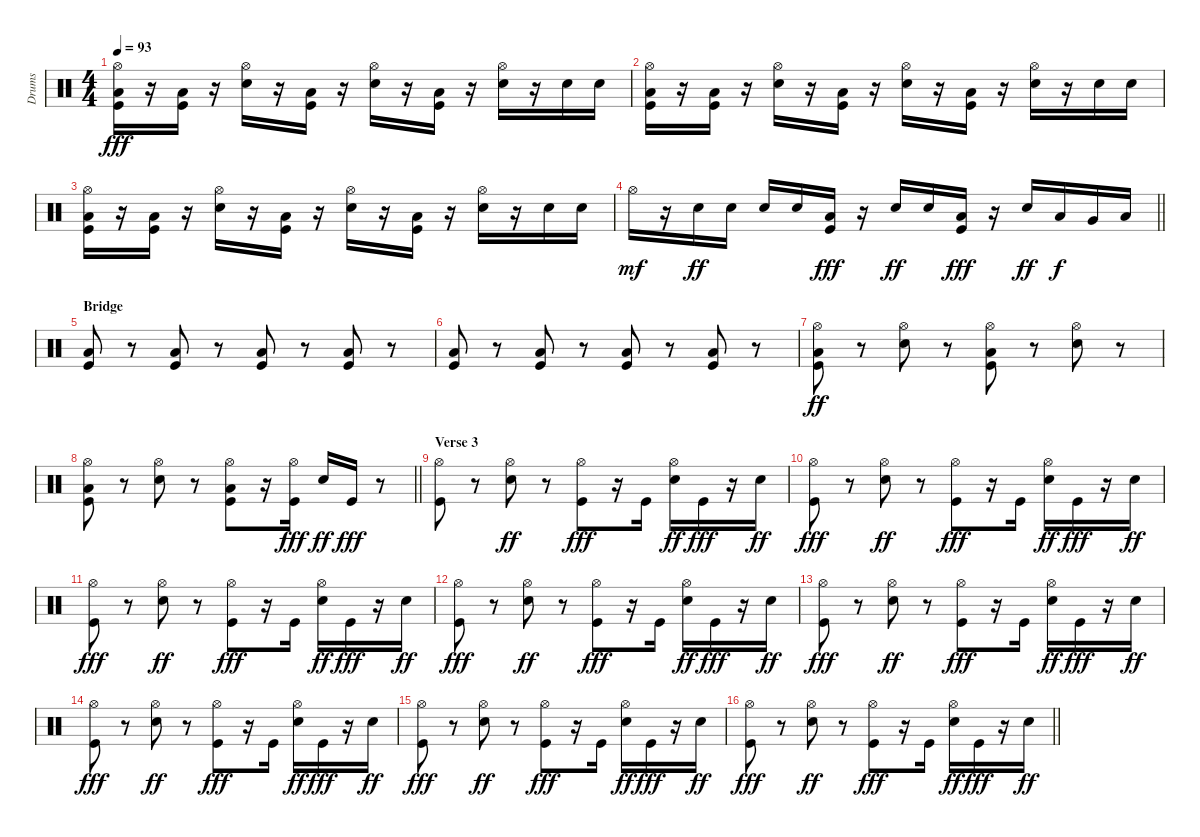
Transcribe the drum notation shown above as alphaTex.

\track ("Drums" "Drums") {instrument percussion}
\staff {score}
\articulation defaults
\ts (4 4)
\tempo 93
\clef neutral
\ks c
("Hi-Hat (open)" "Low Floor Tom (hit)" "Kick (hit)").16{dy fff} r.16 ("Low Floor Tom (hit)" "Kick (hit)").16 r.16 ("Hi-Hat (open)" "Electric Snare (hit)").16 r.16 ("Low Floor Tom (hit)" "Kick (hit)").16 r.16 ("Hi-Hat (open)" "Electric Snare (hit)").16 r.16 ("Low Floor Tom (hit)" "Kick (hit)").16 r.16 ("Hi-Hat (open)" "Electric Snare (hit)").16 r.16 "Electric Snare (hit)".16 "Electric Snare (hit)".16 |
("Hi-Hat (open)" "Low Floor Tom (hit)" "Kick (hit)").16 r.16 ("Low Floor Tom (hit)" "Kick (hit)").16 r.16 ("Hi-Hat (open)" "Electric Snare (hit)").16 r.16 ("Low Floor Tom (hit)" "Kick (hit)").16 r.16 ("Hi-Hat (open)" "Electric Snare (hit)").16 r.16 ("Low Floor Tom (hit)" "Kick (hit)").16 r.16 ("Hi-Hat (open)" "Electric Snare (hit)").16 r.16 "Electric Snare (hit)".16 "Electric Snare (hit)".16 |
("Hi-Hat (open)" "Low Floor Tom (hit)" "Kick (hit)").16 r.16 ("Low Floor Tom (hit)" "Kick (hit)").16 r.16 ("Hi-Hat (open)" "Electric Snare (hit)").16 r.16 ("Low Floor Tom (hit)" "Kick (hit)").16 r.16 ("Hi-Hat (open)" "Electric Snare (hit)").16 r.16 ("Low Floor Tom (hit)" "Kick (hit)").16 r.16 ("Hi-Hat (open)" "Electric Snare (hit)").16 r.16 "Electric Snare (hit)".16 "Electric Snare (hit)".16 |
\barLineRight lightlight "Hi-Hat (open)".16{dy mf}
r.16 "Electric Snare (hit)".16{dy ff} "Electric Snare (hit)".16 "Electric Snare (hit)".16 "Electric Snare (hit)".16 ("Low Floor Tom (hit)" "Kick (hit)").16{dy fff} r.16 "Electric Snare (hit)".16{dy ff} "Electric Snare (hit)".16 ("Low Floor Tom (hit)" "Kick (hit)").16{dy fff} r.16 "Electric Snare (hit)".16{dy ff} "Low Tom (hit)".16{dy f} "Very Low Tom (hit)".16 "Low Floor Tom (hit)".16 |
\section ("" "Bridge")
("Low Floor Tom (hit)" "Kick (hit)").8 r.8 ("Low Floor Tom (hit)" "Kick (hit)").8 r.8 ("Low Floor Tom (hit)" "Kick (hit)").8 r.8 ("Low Floor Tom (hit)" "Kick (hit)").8 r.8 |
("Low Floor Tom (hit)" "Kick (hit)").8 r.8 ("Low Floor Tom (hit)" "Kick (hit)").8 r.8 ("Low Floor Tom (hit)" "Kick (hit)").8 r.8 ("Low Floor Tom (hit)" "Kick (hit)").8 r.8 |
("Hi-Hat (open)" "Low Floor Tom (hit)" "Kick (hit)").8{dy ff} r.8 ("Hi-Hat (open)" "Electric Snare (hit)").8 r.8 ("Hi-Hat (open)" "Low Floor Tom (hit)" "Kick (hit)").8 r.8 ("Hi-Hat (open)" "Electric Snare (hit)").8 r.8 |
\barLineRight lightlight
("Hi-Hat (open)" "Low Floor Tom (hit)" "Kick (hit)").8 r.8 ("Hi-Hat (open)" "Electric Snare (hit)").8 r.8 ("Hi-Hat (open)" "Low Floor Tom (hit)" "Kick (hit)").8 r.16 ("Hi-Hat (open)" "Kick (hit)").16{dy fff} "Electric Snare (hit)".16{dy ff} "Kick (hit)".16{dy fff} r.8 |
\section ("" "Verse 3")
("Hi-Hat (open)" "Kick (hit)").8 r.8 ("Hi-Hat (open)" "Electric Snare (hit)").8{dy ff} r.8 ("Hi-Hat (open)" "Kick (hit)").8{dy fff} r.16 "Kick (hit)".16 ("Hi-Hat (open)" "Electric Snare (hit)").16{dy ff} "Kick (hit)".16{dy fff} r.16 "Electric Snare (hit)".16{dy ff} |
("Hi-Hat (open)" "Kick (hit)").8{dy fff} r.8 ("Hi-Hat (open)" "Electric Snare (hit)").8{dy ff} r.8 ("Hi-Hat (open)" "Kick (hit)").8{dy fff} r.16 "Kick (hit)".16 ("Hi-Hat (open)" "Electric Snare (hit)").16{dy ff} "Kick (hit)".16{dy fff} r.16 "Electric Snare (hit)".16{dy ff} |
("Hi-Hat (open)" "Kick (hit)").8{dy fff} r.8 ("Hi-Hat (open)" "Electric Snare (hit)").8{dy ff} r.8 ("Hi-Hat (open)" "Kick (hit)").8{dy fff} r.16 "Kick (hit)".16 ("Hi-Hat (open)" "Electric Snare (hit)").16{dy ff} "Kick (hit)".16{dy fff} r.16 "Electric Snare (hit)".16{dy ff} |
("Hi-Hat (open)" "Kick (hit)").8{dy fff} r.8 ("Hi-Hat (open)" "Electric Snare (hit)").8{dy ff} r.8 ("Hi-Hat (open)" "Kick (hit)").8{dy fff} r.16 "Kick (hit)".16 ("Hi-Hat (open)" "Electric Snare (hit)").16{dy ff} "Kick (hit)".16{dy fff} r.16 "Electric Snare (hit)".16{dy ff} |
("Hi-Hat (open)" "Kick (hit)").8{dy fff} r.8 ("Hi-Hat (open)" "Electric Snare (hit)").8{dy ff} r.8 ("Hi-Hat (open)" "Kick (hit)").8{dy fff} r.16 "Kick (hit)".16 ("Hi-Hat (open)" "Electric Snare (hit)").16{dy ff} "Kick (hit)".16{dy fff} r.16 "Electric Snare (hit)".16{dy ff} |
("Hi-Hat (open)" "Kick (hit)").8{dy fff} r.8 ("Hi-Hat (open)" "Electric Snare (hit)").8{dy ff} r.8 ("Hi-Hat (open)" "Kick (hit)").8{dy fff} r.16 "Kick (hit)".16 ("Hi-Hat (open)" "Electric Snare (hit)").16{dy ff} "Kick (hit)".16{dy fff} r.16 "Electric Snare (hit)".16{dy ff} |
("Hi-Hat (open)" "Kick (hit)").8{dy fff} r.8 ("Hi-Hat (open)" "Electric Snare (hit)").8{dy ff} r.8 ("Hi-Hat (open)" "Kick (hit)").8{dy fff} r.16 "Kick (hit)".16 ("Hi-Hat (open)" "Electric Snare (hit)").16{dy ff} "Kick (hit)".16{dy fff} r.16 "Electric Snare (hit)".16{dy ff} |
\barLineRight lightlight
("Hi-Hat (open)" "Kick (hit)").8{dy fff} r.8 ("Hi-Hat (open)" "Electric Snare (hit)").8{dy ff} r.8 ("Hi-Hat (open)" "Kick (hit)").8{dy fff} r.16 "Kick (hit)".16 ("Hi-Hat (open)" "Electric Snare (hit)").16{dy ff} "Kick (hit)".16{dy fff} r.16 "Electric Snare (hit)".16{dy ff}
